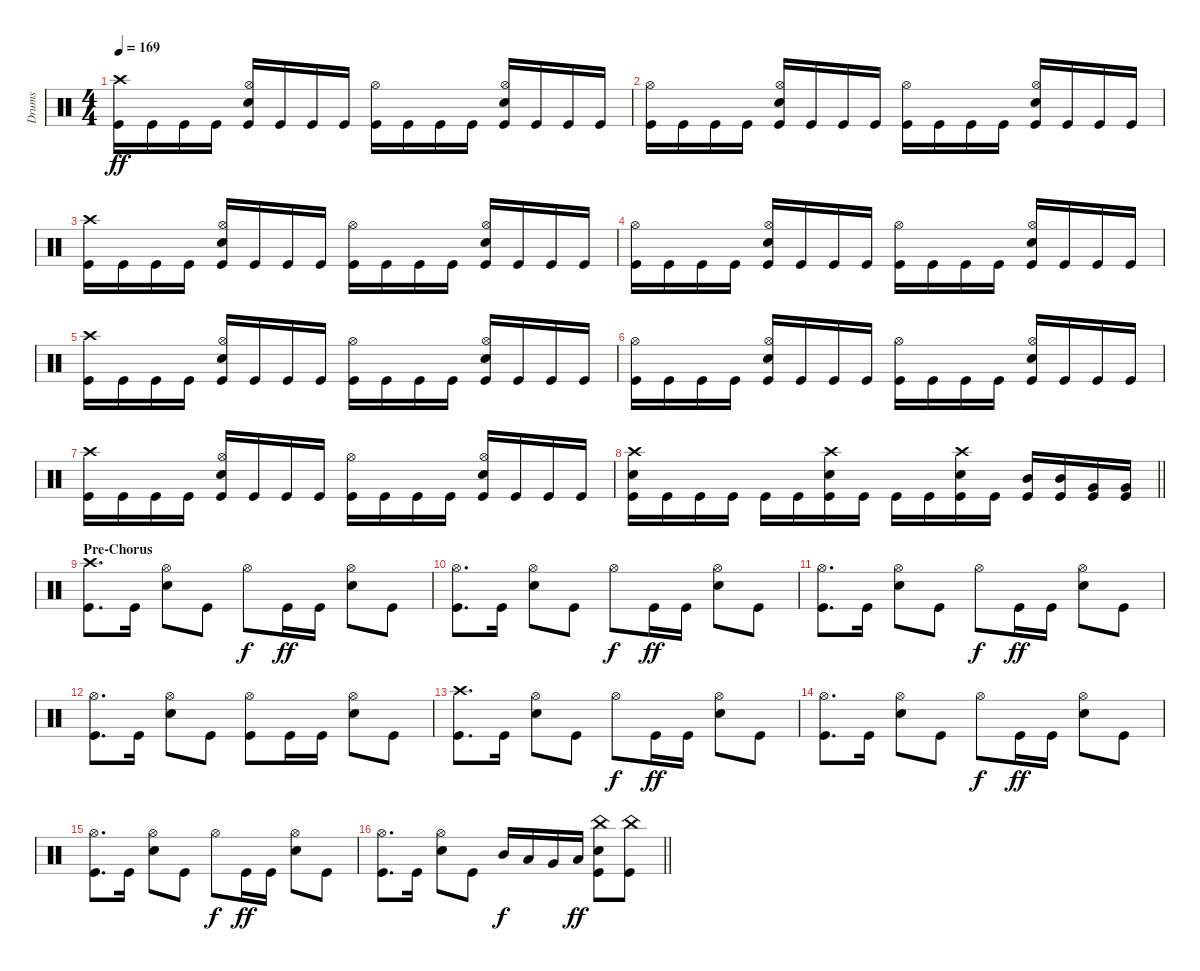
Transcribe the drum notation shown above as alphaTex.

\track ("Drums" "Drums") {instrument percussion}
\staff {score}
\articulation defaults
\ts (4 4)
\tempo 169
\clef neutral
\ks c
("Crash high (hit)" "Kick (hit)").16{dy ff} "Kick (hit)".16 "Kick (hit)".16 "Kick (hit)".16 ("Hi-Hat (open)" "Electric Snare (hit)" "Kick (hit)").16 "Kick (hit)".16 "Kick (hit)".16 "Kick (hit)".16 ("Hi-Hat (open)" "Kick (hit)").16 "Kick (hit)".16 "Kick (hit)".16 "Kick (hit)".16 ("Hi-Hat (open)" "Electric Snare (hit)" "Kick (hit)").16 "Kick (hit)".16 "Kick (hit)".16 "Kick (hit)".16 |
("Hi-Hat (open)" "Kick (hit)").16 "Kick (hit)".16 "Kick (hit)".16 "Kick (hit)".16 ("Hi-Hat (open)" "Electric Snare (hit)" "Kick (hit)").16 "Kick (hit)".16 "Kick (hit)".16 "Kick (hit)".16 ("Hi-Hat (open)" "Kick (hit)").16 "Kick (hit)".16 "Kick (hit)".16 "Kick (hit)".16 ("Hi-Hat (open)" "Electric Snare (hit)" "Kick (hit)").16 "Kick (hit)".16 "Kick (hit)".16 "Kick (hit)".16 |
("Crash high (hit)" "Kick (hit)").16 "Kick (hit)".16 "Kick (hit)".16 "Kick (hit)".16 ("Hi-Hat (open)" "Electric Snare (hit)" "Kick (hit)").16 "Kick (hit)".16 "Kick (hit)".16 "Kick (hit)".16 ("Hi-Hat (open)" "Kick (hit)").16 "Kick (hit)".16 "Kick (hit)".16 "Kick (hit)".16 ("Hi-Hat (open)" "Electric Snare (hit)" "Kick (hit)").16 "Kick (hit)".16 "Kick (hit)".16 "Kick (hit)".16 |
("Hi-Hat (open)" "Kick (hit)").16 "Kick (hit)".16 "Kick (hit)".16 "Kick (hit)".16 ("Hi-Hat (open)" "Electric Snare (hit)" "Kick (hit)").16 "Kick (hit)".16 "Kick (hit)".16 "Kick (hit)".16 ("Hi-Hat (open)" "Kick (hit)").16 "Kick (hit)".16 "Kick (hit)".16 "Kick (hit)".16 ("Hi-Hat (open)" "Electric Snare (hit)" "Kick (hit)").16 "Kick (hit)".16 "Kick (hit)".16 "Kick (hit)".16 |
("Crash high (hit)" "Kick (hit)").16 "Kick (hit)".16 "Kick (hit)".16 "Kick (hit)".16 ("Hi-Hat (open)" "Electric Snare (hit)" "Kick (hit)").16 "Kick (hit)".16 "Kick (hit)".16 "Kick (hit)".16 ("Hi-Hat (open)" "Kick (hit)").16 "Kick (hit)".16 "Kick (hit)".16 "Kick (hit)".16 ("Hi-Hat (open)" "Electric Snare (hit)" "Kick (hit)").16 "Kick (hit)".16 "Kick (hit)".16 "Kick (hit)".16 |
("Hi-Hat (open)" "Kick (hit)").16 "Kick (hit)".16 "Kick (hit)".16 "Kick (hit)".16 ("Hi-Hat (open)" "Electric Snare (hit)" "Kick (hit)").16 "Kick (hit)".16 "Kick (hit)".16 "Kick (hit)".16 ("Hi-Hat (open)" "Kick (hit)").16 "Kick (hit)".16 "Kick (hit)".16 "Kick (hit)".16 ("Hi-Hat (open)" "Electric Snare (hit)" "Kick (hit)").16 "Kick (hit)".16 "Kick (hit)".16 "Kick (hit)".16 |
("Crash high (hit)" "Kick (hit)").16 "Kick (hit)".16 "Kick (hit)".16 "Kick (hit)".16 ("Hi-Hat (open)" "Electric Snare (hit)" "Kick (hit)").16 "Kick (hit)".16 "Kick (hit)".16 "Kick (hit)".16 ("Hi-Hat (open)" "Kick (hit)").16 "Kick (hit)".16 "Kick (hit)".16 "Kick (hit)".16 ("Hi-Hat (open)" "Electric Snare (hit)" "Kick (hit)").16 "Kick (hit)".16 "Kick (hit)".16 "Kick (hit)".16 |
\barLineRight lightlight
("Crash high (hit)" "Electric Snare (hit)" "Kick (hit)").16 "Kick (hit)".16 "Kick (hit)".16 "Kick (hit)".16 "Kick (hit)".16 "Kick (hit)".16 ("Crash high (hit)" "Electric Snare (hit)" "Kick (hit)").16 "Kick (hit)".16 "Kick (hit)".16 "Kick (hit)".16 ("Crash high (hit)" "Electric Snare (hit)" "Kick (hit)").16 "Kick (hit)".16 ("Mid Tom (hit)" "Kick (hit)").16 ("Mid Tom (hit)" "Kick (hit)").16 ("Very Low Tom (hit)" "Kick (hit)").16 ("Very Low Tom (hit)" "Kick (hit)").16 |
\section ("" "Pre-Chorus")
("Crash high (hit)" "Kick (hit)").8{d} "Kick (hit)".16 ("Hi-Hat (open)" "Electric Snare (hit)").8 "Kick (hit)".8 "Hi-Hat (open)".8{dy f} "Kick (hit)".16{dy ff} "Kick (hit)".16 ("Hi-Hat (open)" "Electric Snare (hit)").8 "Kick (hit)".8 |
("Hi-Hat (open)" "Kick (hit)").8{d} "Kick (hit)".16 ("Hi-Hat (open)" "Electric Snare (hit)").8 "Kick (hit)".8 "Hi-Hat (open)".8{dy f} "Kick (hit)".16{dy ff} "Kick (hit)".16 ("Hi-Hat (open)" "Electric Snare (hit)").8 "Kick (hit)".8 |
("Hi-Hat (open)" "Kick (hit)").8{d} "Kick (hit)".16 ("Hi-Hat (open)" "Electric Snare (hit)").8 "Kick (hit)".8 "Hi-Hat (open)".8{dy f} "Kick (hit)".16{dy ff} "Kick (hit)".16 ("Hi-Hat (open)" "Electric Snare (hit)").8 "Kick (hit)".8 |
("Hi-Hat (open)" "Kick (hit)").8{d} "Kick (hit)".16 ("Hi-Hat (open)" "Electric Snare (hit)").8 "Kick (hit)".8 ("Hi-Hat (open)" "Kick (hit)").8 "Kick (hit)".16 "Kick (hit)".16 ("Hi-Hat (open)" "Electric Snare (hit)").8 "Kick (hit)".8 |
("Crash high (hit)" "Kick (hit)").8{d} "Kick (hit)".16 ("Hi-Hat (open)" "Electric Snare (hit)").8 "Kick (hit)".8 "Hi-Hat (open)".8{dy f} "Kick (hit)".16{dy ff} "Kick (hit)".16 ("Hi-Hat (open)" "Electric Snare (hit)").8 "Kick (hit)".8 |
("Hi-Hat (open)" "Kick (hit)").8{d} "Kick (hit)".16 ("Hi-Hat (open)" "Electric Snare (hit)").8 "Kick (hit)".8 "Hi-Hat (open)".8{dy f} "Kick (hit)".16{dy ff} "Kick (hit)".16 ("Hi-Hat (open)" "Electric Snare (hit)").8 "Kick (hit)".8 |
("Hi-Hat (open)" "Kick (hit)").8{d} "Kick (hit)".16 ("Hi-Hat (open)" "Electric Snare (hit)").8 "Kick (hit)".8 "Hi-Hat (open)".8{dy f} "Kick (hit)".16{dy ff} "Kick (hit)".16 ("Hi-Hat (open)" "Electric Snare (hit)").8 "Kick (hit)".8 |
\barLineRight lightlight
("Hi-Hat (open)" "Kick (hit)").8{d} "Kick (hit)".16 ("Hi-Hat (open)" "Electric Snare (hit)").8 "Kick (hit)".8 "Mid Tom (hit)".16{dy f} "Low Tom (hit)".16 "Very Low Tom (hit)".16 "Low Floor Tom (hit)".16{dy ff} ("China (hit)" "Electric Snare (hit)" "Kick (hit)").8 ("China (hit)" "Kick (hit)").8
